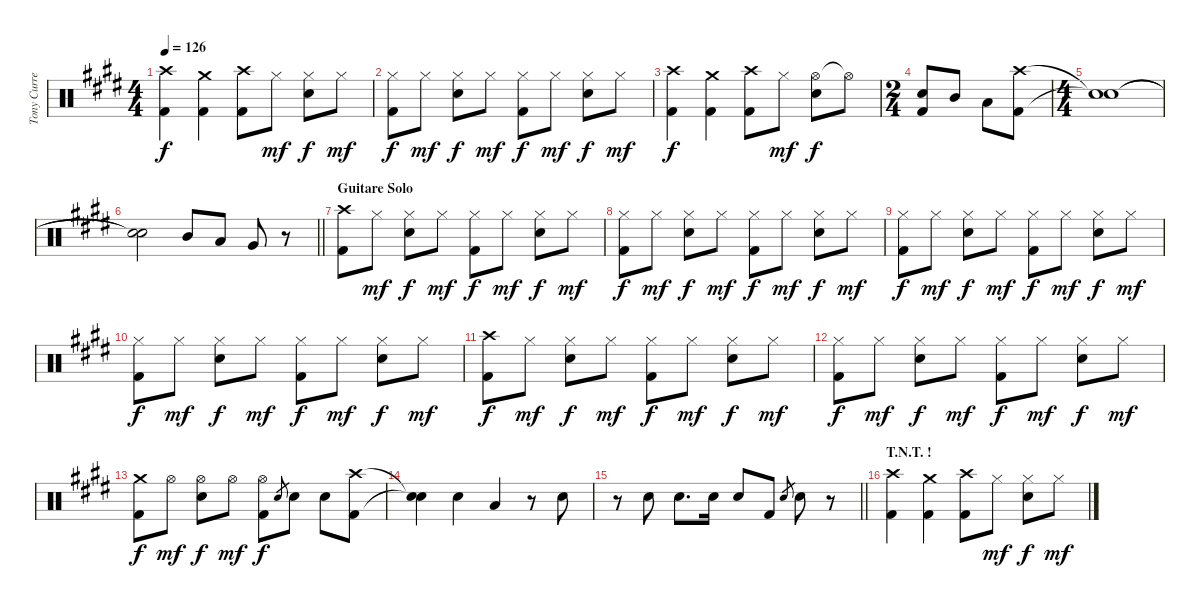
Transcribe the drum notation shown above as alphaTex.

\track ("Tony Currenti" "Tony Curre") {instrument percussion}
\staff {score}
\articulation defaults
\ts (4 4)
\tempo 126
\clef neutral
\ks e
("Crash high (hit)" "Kick (hit) 2").4{dy f} ("Crash medium (hit)" "Kick (hit) 2").4 ("Crash high (hit)" "Kick (hit) 2").8 "Hi-Hat (closed)".8{dy mf} ("Hi-Hat (closed)" "Snare (hit) 2").8{dy f} "Hi-Hat (closed)".8{dy mf} |
("Hi-Hat (closed)" "Kick (hit) 2").8{dy f} "Hi-Hat (closed)".8{dy mf} ("Hi-Hat (closed)" "Snare (hit) 2").8{dy f} "Hi-Hat (closed)".8{dy mf} ("Hi-Hat (closed)" "Kick (hit) 2").8{dy f} "Hi-Hat (closed)".8{dy mf} ("Hi-Hat (closed)" "Snare (hit) 2").8{dy f} "Hi-Hat (closed)".8{dy mf} |
("Crash high (hit)" "Kick (hit) 2").4{dy f} ("Crash medium (hit)" "Kick (hit) 2").4 ("Crash high (hit)" "Kick (hit) 2").8 "Hi-Hat (closed)".8{dy mf} ("Hi-Hat (open)" "Snare (hit) 2").8{dy f} "Hi-Hat (open)"{t}.8 |
\ts (2 4)
("Snare (hit) 2" "Kick (hit) 2").8 "Mid Tom (hit)".8 "Low Tom (hit)".8 ("Crash high (hit)" "Kick (hit) 2").8 |
\ts (4 4)
("Snare (hit)"{t} "Snare (hit)"{t}).1 |
\barLineRight lightlight
("Snare (hit)"{t} "Snare (hit)"{t}).2 "Mid Tom (hit)".8 "Low Tom (hit)".8 "Very Low Tom (hit)".8 r.8 |
\section ("" "Guitare Solo")
("Crash high (hit)" "Kick (hit) 2").8 "Hi-Hat (closed)".8{dy mf} ("Hi-Hat (closed)" "Snare (hit) 2").8{dy f} "Hi-Hat (closed)".8{dy mf} ("Hi-Hat (closed)" "Kick (hit) 2").8{dy f} "Hi-Hat (closed)".8{dy mf} ("Hi-Hat (closed)" "Snare (hit) 2").8{dy f} "Hi-Hat (closed)".8{dy mf} |
("Hi-Hat (closed)" "Kick (hit) 2").8{dy f} "Hi-Hat (closed)".8{dy mf} ("Hi-Hat (closed)" "Snare (hit) 2").8{dy f} "Hi-Hat (closed)".8{dy mf} ("Hi-Hat (closed)" "Kick (hit) 2").8{dy f} "Hi-Hat (closed)".8{dy mf} ("Hi-Hat (closed)" "Snare (hit) 2").8{dy f} "Hi-Hat (closed)".8{dy mf} |
("Hi-Hat (closed)" "Kick (hit) 2").8{dy f} "Hi-Hat (closed)".8{dy mf} ("Hi-Hat (closed)" "Snare (hit) 2").8{dy f} "Hi-Hat (closed)".8{dy mf} ("Hi-Hat (closed)" "Kick (hit) 2").8{dy f} "Hi-Hat (closed)".8{dy mf} ("Hi-Hat (closed)" "Snare (hit) 2").8{dy f} "Hi-Hat (closed)".8{dy mf} |
("Hi-Hat (closed)" "Kick (hit) 2").8{dy f} "Hi-Hat (closed)".8{dy mf} ("Hi-Hat (closed)" "Snare (hit) 2").8{dy f} "Hi-Hat (closed)".8{dy mf} ("Hi-Hat (closed)" "Kick (hit) 2").8{dy f} "Hi-Hat (closed)".8{dy mf} ("Hi-Hat (closed)" "Snare (hit) 2").8{dy f} "Hi-Hat (closed)".8{dy mf} |
("Crash high (hit)" "Kick (hit) 2").8{dy f} "Hi-Hat (closed)".8{dy mf} ("Hi-Hat (closed)" "Snare (hit) 2").8{dy f} "Hi-Hat (closed)".8{dy mf} ("Hi-Hat (closed)" "Kick (hit) 2").8{dy f} "Hi-Hat (closed)".8{dy mf} ("Hi-Hat (closed)" "Snare (hit) 2").8{dy f} "Hi-Hat (closed)".8{dy mf} |
("Hi-Hat (closed)" "Kick (hit) 2").8{dy f} "Hi-Hat (closed)".8{dy mf} ("Hi-Hat (closed)" "Snare (hit) 2").8{dy f} "Hi-Hat (closed)".8{dy mf} ("Hi-Hat (closed)" "Kick (hit) 2").8{dy f} "Hi-Hat (closed)".8{dy mf} ("Hi-Hat (closed)" "Snare (hit) 2").8{dy f} "Hi-Hat (closed)".8{dy mf} |
("Crash medium (hit)" "Kick (hit) 2").8{dy f} "Hi-Hat (open)".8{dy mf} ("Hi-Hat (open)" "Snare (hit) 2").8{dy f} "Hi-Hat (open)".8{dy mf} ("Hi-Hat (open)" "Kick (hit) 2").8{dy f} "Snare (hit) 2".8{gr} "Snare (hit) 2".8 "Snare (hit) 2".8 ("Crash high (hit)" "Kick (hit) 2").8 |
("Snare (hit)"{t} "Snare (hit)"{t}).4 "Snare (hit) 2".4 "Low Tom (hit)".4 r.8 "Snare (hit) 2".8 |
\barLineRight lightlight
r.8 "Snare (hit) 2".8 "Snare (hit) 2".8{d} "Snare (hit) 2".16 "Snare (hit) 2".8 "Kick (hit) 2".8 "Snare (hit) 2".8{gr} "Snare (hit) 2".8 r.8 |
\section ("" "T.N.T. !")
("Crash high (hit)" "Kick (hit) 2").4 ("Crash medium (hit)" "Kick (hit) 2").4 ("Crash high (hit)" "Kick (hit) 2").8 "Hi-Hat (closed)".8{dy mf} ("Hi-Hat (closed)" "Snare (hit) 2").8{dy f} "Hi-Hat (closed)".8{dy mf}
